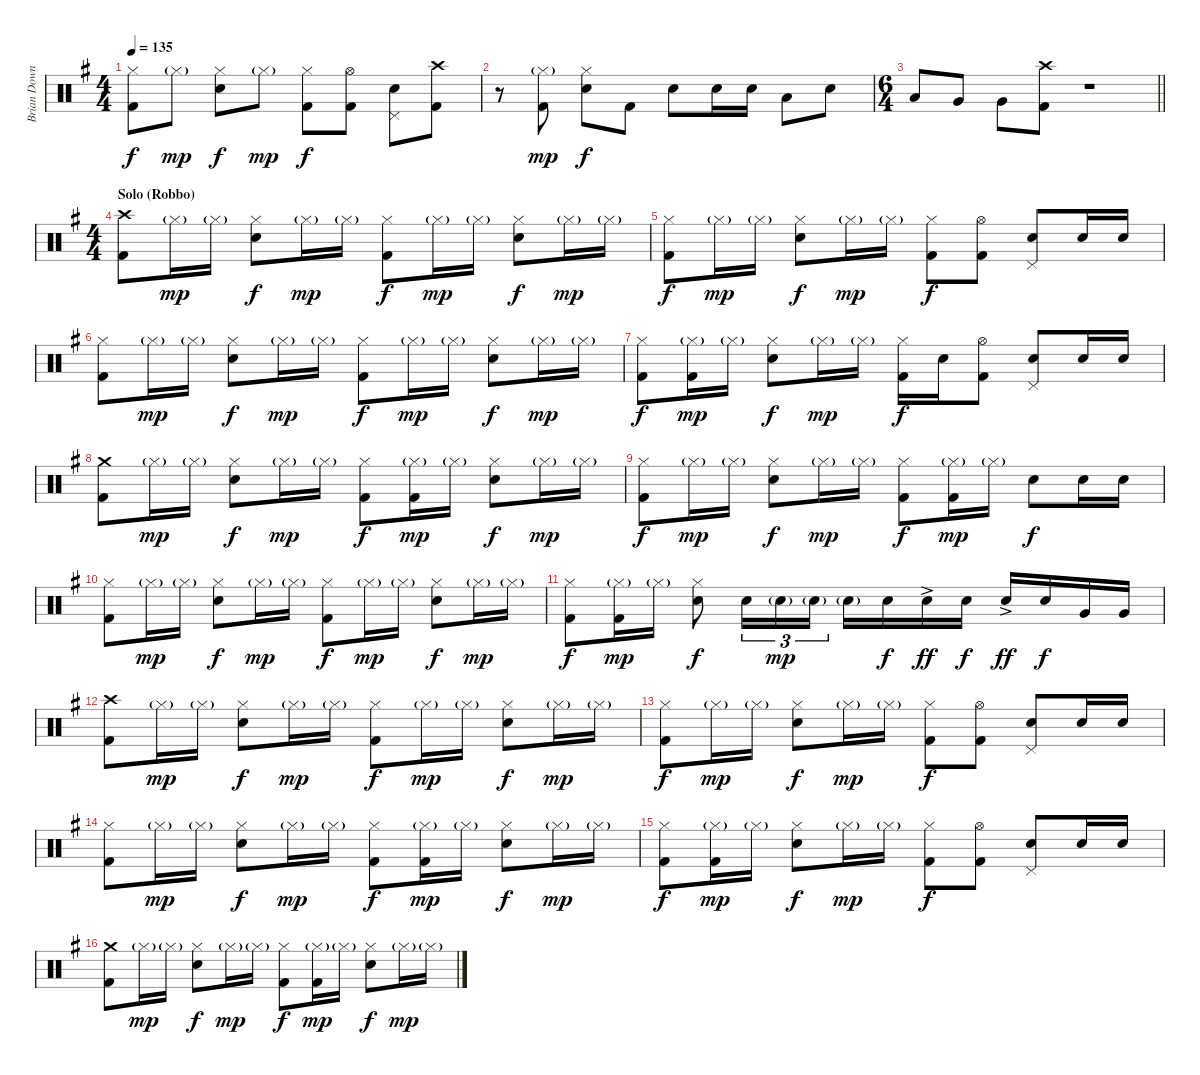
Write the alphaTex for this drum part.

\track ("Brian Downey" "Brian Down") {instrument percussion}
\staff {score}
\articulation defaults
\ts (4 4)
\tempo 135
\clef neutral
\ks eminor
("Hi-Hat (closed)" "Kick (hit) 2").8{dy f} "Hi-Hat (closed)"{g}.8{dy mp} ("Hi-Hat (closed)" "Electric Snare (hit)").8{dy f} "Hi-Hat (closed)"{g}.8{dy mp} ("Hi-Hat (closed)" "Kick (hit) 2").8{dy f} ("Hi-Hat (open)" "Kick (hit) 2").8 ("Pedal Hi-Hat (hit)" "Electric Snare (hit)").8 ("Crash high (hit)" "Kick (hit) 2").8 |
r.8 ("Hi-Hat (closed)"{g} "Kick (hit) 2").8{dy mp} ("Hi-Hat (closed)" "Electric Snare (hit)").8{dy f} "Kick (hit) 2".8 "Electric Snare (hit)".8 "Electric Snare (hit)".16 "Electric Snare (hit)".16 "Low Tom (hit)".8 "Electric Snare (hit)".8 |
\ts (6 4)
\barLineRight lightlight "Low Tom (hit)".8 "Very Low Tom (hit)".8 "Very Low Tom (hit)".8
("Crash high (hit)" "Kick (hit) 2").8 r.1 |
\ts (4 4)
\section ("" "Solo (Robbo)")
("Crash high (hit)" "Kick (hit) 2").8 "Hi-Hat (closed)"{g}.16{dy mp} "Hi-Hat (closed)"{g}.16 ("Hi-Hat (closed)" "Electric Snare (hit)").8{dy f} "Hi-Hat (closed)"{g}.16{dy mp} "Hi-Hat (closed)"{g}.16 ("Hi-Hat (closed)" "Kick (hit) 2").8{dy f} "Hi-Hat (closed)"{g}.16{dy mp} "Hi-Hat (closed)"{g}.16 ("Hi-Hat (closed)" "Electric Snare (hit)").8{dy f} "Hi-Hat (closed)"{g}.16{dy mp} "Hi-Hat (closed)"{g}.16 |
("Hi-Hat (closed)" "Kick (hit) 2").8{dy f} "Hi-Hat (closed)"{g}.16{dy mp} "Hi-Hat (closed)"{g}.16 ("Hi-Hat (closed)" "Electric Snare (hit)").8{dy f} "Hi-Hat (closed)"{g}.16{dy mp} "Hi-Hat (closed)"{g}.16 ("Hi-Hat (closed)" "Kick (hit) 2").8{dy f} ("Hi-Hat (open)" "Kick (hit) 2").8 ("Pedal Hi-Hat (hit)" "Electric Snare (hit)").8 "Electric Snare (hit)".16 "Electric Snare (hit)".16 |
("Hi-Hat (closed)" "Kick (hit) 2").8 "Hi-Hat (closed)"{g}.16{dy mp} "Hi-Hat (closed)"{g}.16 ("Hi-Hat (closed)" "Electric Snare (hit)").8{dy f} "Hi-Hat (closed)"{g}.16{dy mp} "Hi-Hat (closed)"{g}.16 ("Hi-Hat (closed)" "Kick (hit) 2").8{dy f} "Hi-Hat (closed)"{g}.16{dy mp} "Hi-Hat (closed)"{g}.16 ("Hi-Hat (closed)" "Electric Snare (hit)").8{dy f} "Hi-Hat (closed)"{g}.16{dy mp} "Hi-Hat (closed)"{g}.16 |
("Hi-Hat (closed)" "Kick (hit) 2").8{dy f} ("Hi-Hat (closed)"{g} "Kick (hit) 2").16{dy mp} "Hi-Hat (closed)"{g}.16 ("Hi-Hat (closed)" "Electric Snare (hit)").8{dy f} "Hi-Hat (closed)"{g}.16{dy mp} "Hi-Hat (closed)"{g}.16 ("Hi-Hat (closed)" "Kick (hit) 2").16{dy f} "Electric Snare (hit)".16 ("Hi-Hat (open)" "Kick (hit) 2").8 ("Pedal Hi-Hat (hit)" "Electric Snare (hit)").8 "Electric Snare (hit)".16 "Electric Snare (hit)".16 |
("Crash medium (hit)" "Kick (hit) 2").8 "Hi-Hat (closed)"{g}.16{dy mp} "Hi-Hat (closed)"{g}.16 ("Hi-Hat (closed)" "Electric Snare (hit)").8{dy f} "Hi-Hat (closed)"{g}.16{dy mp} "Hi-Hat (closed)"{g}.16 ("Hi-Hat (closed)" "Kick (hit) 2").8{dy f} ("Hi-Hat (closed)"{g} "Kick (hit) 2").16{dy mp} "Hi-Hat (closed)"{g}.16 ("Hi-Hat (closed)" "Electric Snare (hit)").8{dy f} "Hi-Hat (closed)"{g}.16{dy mp} "Hi-Hat (closed)"{g}.16 |
("Hi-Hat (closed)" "Kick (hit) 2").8{dy f} "Hi-Hat (closed)"{g}.16{dy mp} "Hi-Hat (closed)"{g}.16 ("Hi-Hat (closed)" "Electric Snare (hit)").8{dy f} "Hi-Hat (closed)"{g}.16{dy mp} "Hi-Hat (closed)"{g}.16 ("Hi-Hat (closed)" "Kick (hit) 2").8{dy f} ("Hi-Hat (closed)"{g} "Kick (hit) 2").16{dy mp} "Hi-Hat (closed)"{g}.16 "Electric Snare (hit)".8{dy f} "Electric Snare (hit)".16 "Electric Snare (hit)".16 |
("Hi-Hat (closed)" "Kick (hit) 2").8 "Hi-Hat (closed)"{g}.16{dy mp} "Hi-Hat (closed)"{g}.16 ("Hi-Hat (closed)" "Electric Snare (hit)").8{dy f} "Hi-Hat (closed)"{g}.16{dy mp} "Hi-Hat (closed)"{g}.16 ("Hi-Hat (closed)" "Kick (hit) 2").8{dy f} "Hi-Hat (closed)"{g}.16{dy mp} "Hi-Hat (closed)"{g}.16 ("Hi-Hat (closed)" "Electric Snare (hit)").8{dy f} "Hi-Hat (closed)"{g}.16{dy mp} "Hi-Hat (closed)"{g}.16 |
("Hi-Hat (closed)" "Kick (hit) 2").8{dy f} ("Hi-Hat (closed)"{g} "Kick (hit) 2").16{dy mp} "Hi-Hat (closed)"{g}.16 ("Hi-Hat (closed)" "Electric Snare (hit)").8{dy f} "Electric Snare (hit)".16{tu (3 2)} "Electric Snare (hit)"{g}.16{tu (3 2) dy mp} "Electric Snare (hit)"{g}.16{tu (3 2)} "Electric Snare (hit)"{g}.16 "Electric Snare (hit)".16{dy f} "Electric Snare (hit)"{ac}.16{dy ff} "Electric Snare (hit)".16{dy f} "Electric Snare (hit)"{ac}.16{dy ff} "Electric Snare (hit)".16{dy f} "Very Low Tom (hit)".16 "Very Low Tom (hit)".16 |
("Crash high (hit)" "Kick (hit) 2").8 "Hi-Hat (closed)"{g}.16{dy mp} "Hi-Hat (closed)"{g}.16 ("Hi-Hat (closed)" "Electric Snare (hit)").8{dy f} "Hi-Hat (closed)"{g}.16{dy mp} "Hi-Hat (closed)"{g}.16 ("Hi-Hat (closed)" "Kick (hit) 2").8{dy f} "Hi-Hat (closed)"{g}.16{dy mp} "Hi-Hat (closed)"{g}.16 ("Hi-Hat (closed)" "Electric Snare (hit)").8{dy f} "Hi-Hat (closed)"{g}.16{dy mp} "Hi-Hat (closed)"{g}.16 |
("Hi-Hat (closed)" "Kick (hit) 2").8{dy f} "Hi-Hat (closed)"{g}.16{dy mp} "Hi-Hat (closed)"{g}.16 ("Hi-Hat (closed)" "Electric Snare (hit)").8{dy f} "Hi-Hat (closed)"{g}.16{dy mp} "Hi-Hat (closed)"{g}.16 ("Hi-Hat (closed)" "Kick (hit) 2").8{dy f} ("Hi-Hat (open)" "Kick (hit) 2").8 ("Pedal Hi-Hat (hit)" "Electric Snare (hit)").8 "Electric Snare (hit)".16 "Electric Snare (hit)".16 |
("Hi-Hat (closed)" "Kick (hit) 2").8 "Hi-Hat (closed)"{g}.16{dy mp} "Hi-Hat (closed)"{g}.16 ("Hi-Hat (closed)" "Electric Snare (hit)").8{dy f} "Hi-Hat (closed)"{g}.16{dy mp} "Hi-Hat (closed)"{g}.16 ("Hi-Hat (closed)" "Kick (hit) 2").8{dy f} ("Hi-Hat (closed)"{g} "Kick (hit) 2").16{dy mp} "Hi-Hat (closed)"{g}.16 ("Hi-Hat (closed)" "Electric Snare (hit)").8{dy f} "Hi-Hat (closed)"{g}.16{dy mp} "Hi-Hat (closed)"{g}.16 |
("Hi-Hat (closed)" "Kick (hit) 2").8{dy f} ("Hi-Hat (closed)"{g} "Kick (hit) 2").16{dy mp} "Hi-Hat (closed)"{g}.16 ("Hi-Hat (closed)" "Electric Snare (hit)").8{dy f} "Hi-Hat (closed)"{g}.16{dy mp} "Hi-Hat (closed)"{g}.16 ("Hi-Hat (closed)" "Kick (hit) 2").8{dy f} ("Hi-Hat (open)" "Kick (hit) 2").8 ("Pedal Hi-Hat (hit)" "Electric Snare (hit)").8 "Electric Snare (hit)".16 "Electric Snare (hit)".16 |
("Crash medium (hit)" "Kick (hit) 2").8 "Hi-Hat (closed)"{g}.16{dy mp} "Hi-Hat (closed)"{g}.16 ("Hi-Hat (closed)" "Electric Snare (hit)").8{dy f} "Hi-Hat (closed)"{g}.16{dy mp} "Hi-Hat (closed)"{g}.16 ("Hi-Hat (closed)" "Kick (hit) 2").8{dy f} ("Hi-Hat (closed)"{g} "Kick (hit) 2").16{dy mp} "Hi-Hat (closed)"{g}.16 ("Hi-Hat (closed)" "Electric Snare (hit)").8{dy f} "Hi-Hat (closed)"{g}.16{dy mp} "Hi-Hat (closed)"{g}.16
